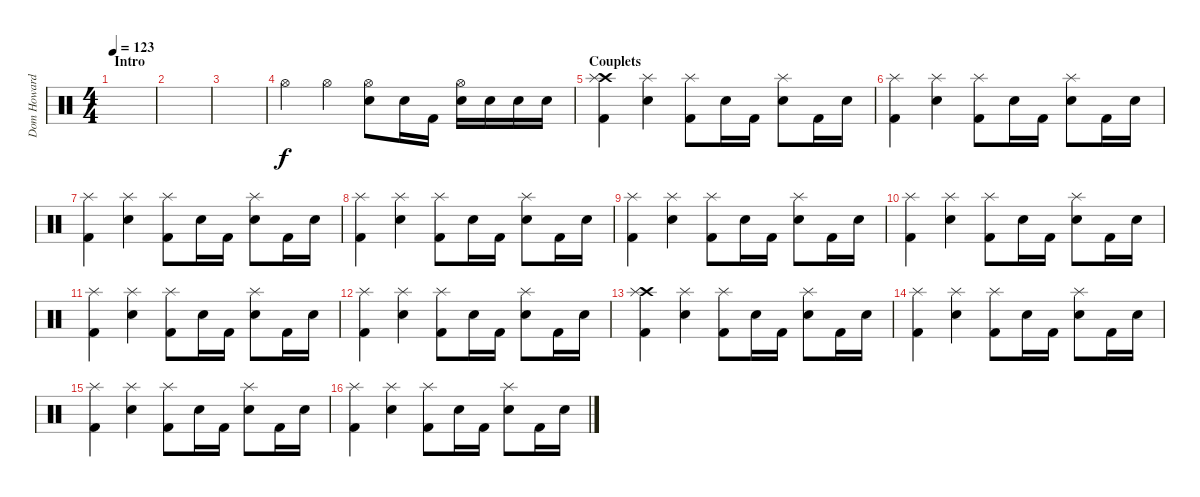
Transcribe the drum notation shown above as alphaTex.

\track ("Dom Howard" "Dom Howard") {instrument percussion}
\staff {score}
\articulation defaults
\ts (4 4)
\section ("" "Intro")
\tempo 123
\clef neutral
\ks c
|
|
|
"Hi-Hat (open)".4 "Hi-Hat (open)".4 ("Hi-Hat (open)" "Snare (hit) 2").8 "Snare (hit) 2".16 "Kick (hit) 2".16 ("Hi-Hat (open)" "Snare (hit) 2").16 "Snare (hit) 2".16 "Snare (hit) 2".16 "Snare (hit) 2".16 |
\section ("" "Couplets")
("Crash high (hit)" "Splash (hit)" "Kick (hit) 2").4 ("Splash (hit)" "Snare (hit) 2").4 ("Splash (hit)" "Kick (hit) 2").8 "Snare (hit) 2".16 "Kick (hit) 2".16 ("Splash (hit)" "Snare (hit) 2").8 "Kick (hit) 2".16 "Snare (hit) 2".16 |
("Splash (hit)" "Kick (hit) 2").4 ("Splash (hit)" "Snare (hit) 2").4 ("Splash (hit)" "Kick (hit) 2").8 "Snare (hit) 2".16 "Kick (hit) 2".16 ("Splash (hit)" "Snare (hit) 2").8 "Kick (hit) 2".16 "Snare (hit) 2".16 |
("Splash (hit)" "Kick (hit) 2").4 ("Splash (hit)" "Snare (hit) 2").4 ("Splash (hit)" "Kick (hit) 2").8 "Snare (hit) 2".16 "Kick (hit) 2".16 ("Splash (hit)" "Snare (hit) 2").8 "Kick (hit) 2".16 "Snare (hit) 2".16 |
("Splash (hit)" "Kick (hit) 2").4 ("Splash (hit)" "Snare (hit) 2").4 ("Splash (hit)" "Kick (hit) 2").8 "Snare (hit) 2".16 "Kick (hit) 2".16 ("Splash (hit)" "Snare (hit) 2").8 "Kick (hit) 2".16 "Snare (hit) 2".16 |
("Splash (hit)" "Kick (hit) 2").4 ("Splash (hit)" "Snare (hit) 2").4 ("Splash (hit)" "Kick (hit) 2").8 "Snare (hit) 2".16 "Kick (hit) 2".16 ("Splash (hit)" "Snare (hit) 2").8 "Kick (hit) 2".16 "Snare (hit) 2".16 |
("Splash (hit)" "Kick (hit) 2").4 ("Splash (hit)" "Snare (hit) 2").4 ("Splash (hit)" "Kick (hit) 2").8 "Snare (hit) 2".16 "Kick (hit) 2".16 ("Splash (hit)" "Snare (hit) 2").8 "Kick (hit) 2".16 "Snare (hit) 2".16 |
("Splash (hit)" "Kick (hit) 2").4 ("Splash (hit)" "Snare (hit) 2").4 ("Splash (hit)" "Kick (hit) 2").8 "Snare (hit) 2".16 "Kick (hit) 2".16 ("Splash (hit)" "Snare (hit) 2").8 "Kick (hit) 2".16 "Snare (hit) 2".16 |
("Splash (hit)" "Kick (hit) 2").4 ("Splash (hit)" "Snare (hit) 2").4 ("Splash (hit)" "Kick (hit) 2").8 "Snare (hit) 2".16 "Kick (hit) 2".16 ("Splash (hit)" "Snare (hit) 2").8 "Kick (hit) 2".16 "Snare (hit) 2".16 |
("Crash high (hit)" "Splash (hit)" "Kick (hit) 2").4 ("Splash (hit)" "Snare (hit) 2").4 ("Splash (hit)" "Kick (hit) 2").8 "Snare (hit) 2".16 "Kick (hit) 2".16 ("Splash (hit)" "Snare (hit) 2").8 "Kick (hit) 2".16 "Snare (hit) 2".16 |
("Splash (hit)" "Kick (hit) 2").4 ("Splash (hit)" "Snare (hit) 2").4 ("Splash (hit)" "Kick (hit) 2").8 "Snare (hit) 2".16 "Kick (hit) 2".16 ("Splash (hit)" "Snare (hit) 2").8 "Kick (hit) 2".16 "Snare (hit) 2".16 |
("Splash (hit)" "Kick (hit) 2").4 ("Splash (hit)" "Snare (hit) 2").4 ("Splash (hit)" "Kick (hit) 2").8 "Snare (hit) 2".16 "Kick (hit) 2".16 ("Splash (hit)" "Snare (hit) 2").8 "Kick (hit) 2".16 "Snare (hit) 2".16 |
("Splash (hit)" "Kick (hit) 2").4 ("Splash (hit)" "Snare (hit) 2").4 ("Splash (hit)" "Kick (hit) 2").8 "Snare (hit) 2".16 "Kick (hit) 2".16 ("Splash (hit)" "Snare (hit) 2").8 "Kick (hit) 2".16 "Snare (hit) 2".16
